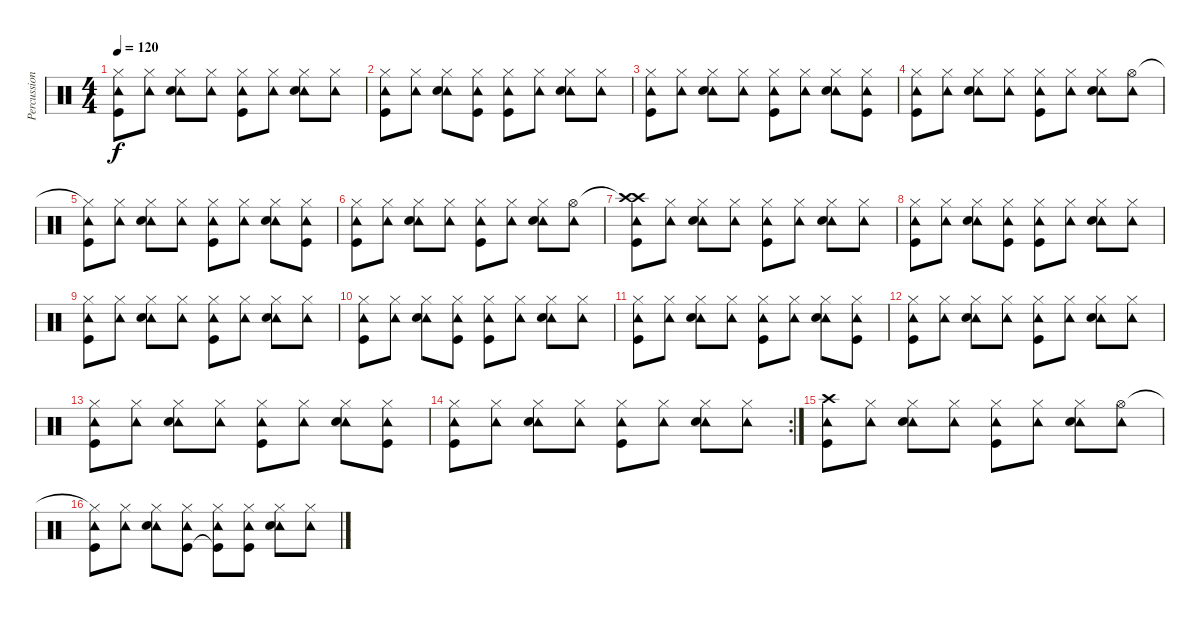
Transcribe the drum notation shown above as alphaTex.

\track ("Percussion" "Percussion") {instrument percussion}
\staff {score}
\articulation defaults
\ts (4 4)
\tempo 120
\clef neutral
\ks c
("Hi-Hat (closed)" "Tambourine (hit)" "Kick (hit)").8{dy f} ("Hi-Hat (closed)" "Tambourine (hit)").8 ("Hi-Hat (closed)" "Tambourine (hit)" "Snare (hit) 2").8 ("Hi-Hat (closed)" "Tambourine (hit)").8 ("Hi-Hat (closed)" "Tambourine (hit)" "Kick (hit)").8 ("Hi-Hat (closed)" "Tambourine (hit)").8 ("Hi-Hat (closed)" "Tambourine (hit)" "Snare (hit) 2").8 ("Hi-Hat (closed)" "Tambourine (hit)").8 |
("Hi-Hat (closed)" "Tambourine (hit)" "Kick (hit)").8 ("Hi-Hat (closed)" "Tambourine (hit)").8 ("Hi-Hat (closed)" "Tambourine (hit)" "Snare (hit) 2").8 ("Hi-Hat (closed)" "Tambourine (hit)" "Kick (hit)").8 ("Hi-Hat (closed)" "Tambourine (hit)" "Kick (hit)").8 ("Hi-Hat (closed)" "Tambourine (hit)").8 ("Hi-Hat (closed)" "Tambourine (hit)" "Snare (hit) 2").8 ("Hi-Hat (closed)" "Tambourine (hit)").8 |
("Hi-Hat (closed)" "Tambourine (hit)" "Kick (hit)").8 ("Hi-Hat (closed)" "Tambourine (hit)").8 ("Hi-Hat (closed)" "Tambourine (hit)" "Snare (hit) 2").8 ("Hi-Hat (closed)" "Tambourine (hit)").8 ("Hi-Hat (closed)" "Tambourine (hit)" "Kick (hit)").8 ("Hi-Hat (closed)" "Tambourine (hit)").8 ("Hi-Hat (closed)" "Tambourine (hit)" "Snare (hit) 2").8 ("Hi-Hat (closed)" "Tambourine (hit)" "Kick (hit)").8 |
("Hi-Hat (closed)" "Tambourine (hit)" "Kick (hit)").8 ("Hi-Hat (closed)" "Tambourine (hit)").8 ("Hi-Hat (closed)" "Tambourine (hit)" "Snare (hit) 2").8 ("Hi-Hat (closed)" "Tambourine (hit)").8 ("Hi-Hat (closed)" "Tambourine (hit)" "Kick (hit)").8 ("Hi-Hat (closed)" "Tambourine (hit)").8 ("Hi-Hat (closed)" "Tambourine (hit)" "Snare (hit) 2").8 ("Hi-Hat (open)" "Tambourine (hit)").8 |
("Hi-Hat (closed)"{t} "Tambourine (hit)" "Kick (hit)").8 ("Hi-Hat (closed)" "Tambourine (hit)").8 ("Hi-Hat (closed)" "Tambourine (hit)" "Snare (hit) 2").8 ("Hi-Hat (closed)" "Tambourine (hit)").8 ("Hi-Hat (closed)" "Tambourine (hit)" "Kick (hit)").8 ("Hi-Hat (closed)" "Tambourine (hit)").8 ("Hi-Hat (closed)" "Tambourine (hit)" "Snare (hit) 2").8 ("Hi-Hat (closed)" "Tambourine (hit)" "Kick (hit)").8 |
("Hi-Hat (closed)" "Tambourine (hit)" "Kick (hit)").8 ("Hi-Hat (closed)" "Tambourine (hit)").8 ("Hi-Hat (closed)" "Tambourine (hit)" "Snare (hit) 2").8 ("Hi-Hat (closed)" "Tambourine (hit)").8 ("Hi-Hat (closed)" "Tambourine (hit)" "Kick (hit)").8 ("Hi-Hat (closed)" "Tambourine (hit)").8 ("Hi-Hat (closed)" "Tambourine (hit)" "Snare (hit) 2").8 ("Hi-Hat (open)" "Tambourine (hit)").8 |
("Crash high (hit)"{t} "Tambourine (hit)" "Crash high (hit)" "Kick (hit)").8 ("Hi-Hat (closed)" "Tambourine (hit)").8 ("Hi-Hat (closed)" "Tambourine (hit)" "Snare (hit) 2").8 ("Hi-Hat (closed)" "Tambourine (hit)").8 ("Hi-Hat (closed)" "Tambourine (hit)" "Kick (hit)").8 ("Hi-Hat (closed)" "Tambourine (hit)").8 ("Hi-Hat (closed)" "Tambourine (hit)" "Snare (hit) 2").8 ("Hi-Hat (closed)" "Tambourine (hit)").8 |
("Hi-Hat (closed)" "Tambourine (hit)" "Kick (hit)").8 ("Hi-Hat (closed)" "Tambourine (hit)").8 ("Hi-Hat (closed)" "Tambourine (hit)" "Snare (hit) 2").8 ("Hi-Hat (closed)" "Tambourine (hit)" "Kick (hit)").8 ("Hi-Hat (closed)" "Tambourine (hit)" "Kick (hit)").8 ("Hi-Hat (closed)" "Tambourine (hit)").8 ("Hi-Hat (closed)" "Tambourine (hit)" "Snare (hit) 2").8 ("Hi-Hat (closed)" "Tambourine (hit)").8 |
("Hi-Hat (closed)" "Tambourine (hit)" "Kick (hit)").8 ("Hi-Hat (closed)" "Tambourine (hit)").8 ("Hi-Hat (closed)" "Tambourine (hit)" "Snare (hit) 2").8 ("Hi-Hat (closed)" "Tambourine (hit)").8 ("Hi-Hat (closed)" "Tambourine (hit)" "Kick (hit)").8 ("Hi-Hat (closed)" "Tambourine (hit)").8 ("Hi-Hat (closed)" "Tambourine (hit)" "Snare (hit) 2").8 ("Hi-Hat (closed)" "Tambourine (hit)").8 |
("Hi-Hat (closed)" "Tambourine (hit)" "Kick (hit)").8 ("Hi-Hat (closed)" "Tambourine (hit)").8 ("Hi-Hat (closed)" "Tambourine (hit)" "Snare (hit) 2").8 ("Hi-Hat (closed)" "Tambourine (hit)" "Kick (hit)").8 ("Hi-Hat (closed)" "Tambourine (hit)" "Kick (hit)").8 ("Hi-Hat (closed)" "Tambourine (hit)").8 ("Hi-Hat (closed)" "Tambourine (hit)" "Snare (hit) 2").8 ("Hi-Hat (closed)" "Tambourine (hit)").8 |
("Hi-Hat (closed)" "Tambourine (hit)" "Kick (hit)").8 ("Hi-Hat (closed)" "Tambourine (hit)").8 ("Hi-Hat (closed)" "Tambourine (hit)" "Snare (hit) 2").8 ("Hi-Hat (closed)" "Tambourine (hit)").8 ("Hi-Hat (closed)" "Tambourine (hit)" "Kick (hit)").8 ("Hi-Hat (closed)" "Tambourine (hit)").8 ("Hi-Hat (closed)" "Tambourine (hit)" "Snare (hit) 2").8 ("Hi-Hat (closed)" "Tambourine (hit)" "Kick (hit)").8 |
("Hi-Hat (closed)" "Tambourine (hit)" "Kick (hit)").8 ("Hi-Hat (closed)" "Tambourine (hit)").8 ("Hi-Hat (closed)" "Tambourine (hit)" "Snare (hit) 2").8 ("Hi-Hat (closed)" "Tambourine (hit)").8 ("Hi-Hat (closed)" "Tambourine (hit)" "Kick (hit)").8 ("Hi-Hat (closed)" "Tambourine (hit)").8 ("Hi-Hat (closed)" "Tambourine (hit)" "Snare (hit) 2").8 ("Hi-Hat (closed)" "Tambourine (hit)").8 |
("Hi-Hat (closed)" "Tambourine (hit)" "Kick (hit)").8 ("Hi-Hat (closed)" "Tambourine (hit)").8 ("Hi-Hat (closed)" "Tambourine (hit)" "Snare (hit) 2").8 ("Hi-Hat (closed)" "Tambourine (hit)").8 ("Hi-Hat (closed)" "Tambourine (hit)" "Kick (hit)").8 ("Hi-Hat (closed)" "Tambourine (hit)").8 ("Hi-Hat (closed)" "Tambourine (hit)" "Snare (hit) 2").8 ("Hi-Hat (closed)" "Tambourine (hit)" "Kick (hit)").8 |
\rc 2
("Hi-Hat (closed)" "Tambourine (hit)" "Kick (hit)").8 ("Hi-Hat (closed)" "Tambourine (hit)").8 ("Hi-Hat (closed)" "Tambourine (hit)" "Snare (hit) 2").8 ("Hi-Hat (closed)" "Tambourine (hit)").8 ("Hi-Hat (closed)" "Tambourine (hit)" "Kick (hit)").8 ("Hi-Hat (closed)" "Tambourine (hit)").8 ("Hi-Hat (closed)" "Tambourine (hit)" "Snare (hit) 2").8 ("Hi-Hat (closed)" "Tambourine (hit)").8 |
("Crash high (hit)" "Tambourine (hit)" "Kick (hit)").8 ("Hi-Hat (closed)" "Tambourine (hit)").8 ("Hi-Hat (closed)" "Tambourine (hit)" "Snare (hit) 2").8 ("Hi-Hat (closed)" "Tambourine (hit)").8 ("Hi-Hat (closed)" "Tambourine (hit)" "Kick (hit)").8 ("Hi-Hat (closed)" "Tambourine (hit)").8 ("Hi-Hat (closed)" "Tambourine (hit)" "Snare (hit) 2").8 ("Hi-Hat (open)" "Tambourine (hit)").8 |
("Hi-Hat (closed)"{t} "Tambourine (hit)" "Kick (hit)").8 ("Hi-Hat (closed)" "Tambourine (hit)").8 ("Hi-Hat (closed)" "Tambourine (hit)" "Snare (hit) 2").8 ("Hi-Hat (closed)" "Tambourine (hit)" "Kick (hit)").8 ("Hi-Hat (closed)" "Tambourine (hit)" "Kick (hit)"{t}).8 ("Hi-Hat (closed)" "Tambourine (hit)" "Kick (hit)").8 ("Hi-Hat (closed)" "Tambourine (hit)" "Snare (hit) 2").8 ("Hi-Hat (closed)" "Tambourine (hit)").8
